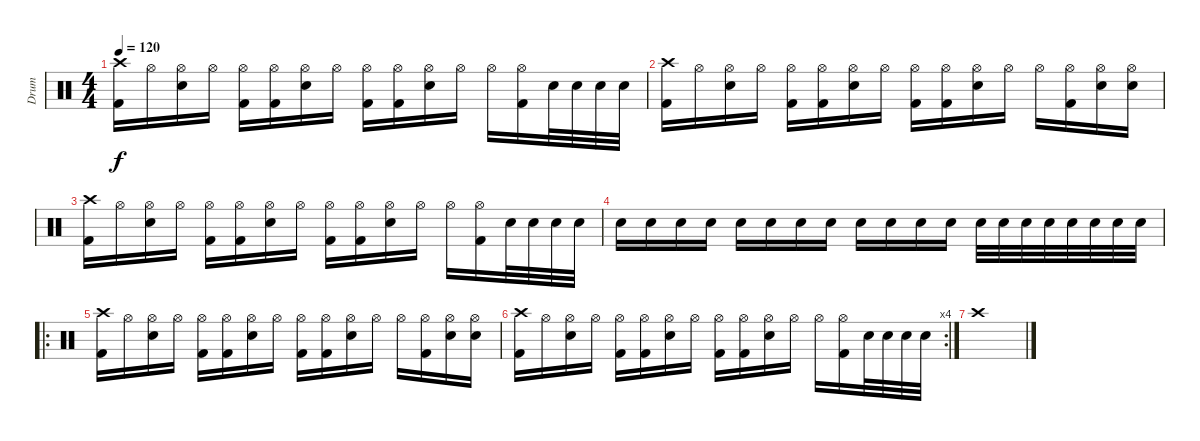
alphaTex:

\track ("Drum" "Drum") {instrument percussion}
\staff {score}
\articulation defaults
\ts (4 4)
\tempo 120
\clef neutral
\ks c
("Crash high (hit)" "Kick (hit) 2").16{dy f} "Hi-Hat (open)".16 ("Hi-Hat (open)" "Electric Snare (hit)").16 "Hi-Hat (open)".16 ("Hi-Hat (open)" "Kick (hit) 2").16 ("Hi-Hat (open)" "Kick (hit) 2").16 ("Hi-Hat (open)" "Electric Snare (hit)").16 "Hi-Hat (open)".16 ("Hi-Hat (open)" "Kick (hit) 2").16 ("Hi-Hat (open)" "Kick (hit) 2").16 ("Hi-Hat (open)" "Electric Snare (hit)").16 "Hi-Hat (open)".16 "Hi-Hat (open)".16 ("Hi-Hat (open)" "Kick (hit) 2").16 "Electric Snare (hit)".32 "Electric Snare (hit)".32 "Electric Snare (hit)".32 "Electric Snare (hit)".32 |
("Crash high (hit)" "Kick (hit) 2").16 "Hi-Hat (open)".16 ("Hi-Hat (open)" "Electric Snare (hit)").16 "Hi-Hat (open)".16 ("Hi-Hat (open)" "Kick (hit) 2").16 ("Hi-Hat (open)" "Kick (hit) 2").16 ("Hi-Hat (open)" "Electric Snare (hit)").16 "Hi-Hat (open)".16 ("Hi-Hat (open)" "Kick (hit) 2").16 ("Hi-Hat (open)" "Kick (hit) 2").16 ("Hi-Hat (open)" "Electric Snare (hit)").16 "Hi-Hat (open)".16 "Hi-Hat (open)".16 ("Hi-Hat (open)" "Kick (hit) 2").16 ("Hi-Hat (open)" "Electric Snare (hit)").16 ("Hi-Hat (open)" "Electric Snare (hit)").16 |
("Crash high (hit)" "Kick (hit) 2").16 "Hi-Hat (open)".16 ("Hi-Hat (open)" "Electric Snare (hit)").16 "Hi-Hat (open)".16 ("Hi-Hat (open)" "Kick (hit) 2").16 ("Hi-Hat (open)" "Kick (hit) 2").16 ("Hi-Hat (open)" "Electric Snare (hit)").16 "Hi-Hat (open)".16 ("Hi-Hat (open)" "Kick (hit) 2").16 ("Hi-Hat (open)" "Kick (hit) 2").16 ("Hi-Hat (open)" "Electric Snare (hit)").16 "Hi-Hat (open)".16 "Hi-Hat (open)".16 ("Hi-Hat (open)" "Kick (hit) 2").16 "Electric Snare (hit)".32 "Electric Snare (hit)".32 "Electric Snare (hit)".32 "Electric Snare (hit)".32 |
"Electric Snare (hit)".16 "Electric Snare (hit)".16 "Electric Snare (hit)".16 "Electric Snare (hit)".16 "Electric Snare (hit)".16 "Electric Snare (hit)".16 "Electric Snare (hit)".16 "Electric Snare (hit)".16 "Electric Snare (hit)".16 "Electric Snare (hit)".16 "Electric Snare (hit)".16 "Electric Snare (hit)".16 "Electric Snare (hit)".32 "Electric Snare (hit)".32 "Electric Snare (hit)".32 "Electric Snare (hit)".32 "Electric Snare (hit)".32 "Electric Snare (hit)".32 "Electric Snare (hit)".32 "Electric Snare (hit)".32 |
\ro
("Crash high (hit)" "Kick (hit) 2").16 "Hi-Hat (open)".16 ("Hi-Hat (open)" "Electric Snare (hit)").16 "Hi-Hat (open)".16 ("Hi-Hat (open)" "Kick (hit) 2").16 ("Hi-Hat (open)" "Kick (hit) 2").16 ("Hi-Hat (open)" "Electric Snare (hit)").16 "Hi-Hat (open)".16 ("Hi-Hat (open)" "Kick (hit) 2").16 ("Hi-Hat (open)" "Kick (hit) 2").16 ("Hi-Hat (open)" "Electric Snare (hit)").16 "Hi-Hat (open)".16 "Hi-Hat (open)".16 ("Hi-Hat (open)" "Kick (hit) 2").16 ("Hi-Hat (open)" "Electric Snare (hit)").16 ("Hi-Hat (open)" "Electric Snare (hit)").16 |
\rc 4
("Crash high (hit)" "Kick (hit) 2").16 "Hi-Hat (open)".16 ("Hi-Hat (open)" "Electric Snare (hit)").16 "Hi-Hat (open)".16 ("Hi-Hat (open)" "Kick (hit) 2").16 ("Hi-Hat (open)" "Kick (hit) 2").16 ("Hi-Hat (open)" "Electric Snare (hit)").16 "Hi-Hat (open)".16 ("Hi-Hat (open)" "Kick (hit) 2").16 ("Hi-Hat (open)" "Kick (hit) 2").16 ("Hi-Hat (open)" "Electric Snare (hit)").16 "Hi-Hat (open)".16 "Hi-Hat (open)".16 ("Hi-Hat (open)" "Kick (hit) 2").16 "Electric Snare (hit)".32 "Electric Snare (hit)".32 "Electric Snare (hit)".32 "Electric Snare (hit)".32 |
"Crash high (hit)".1
